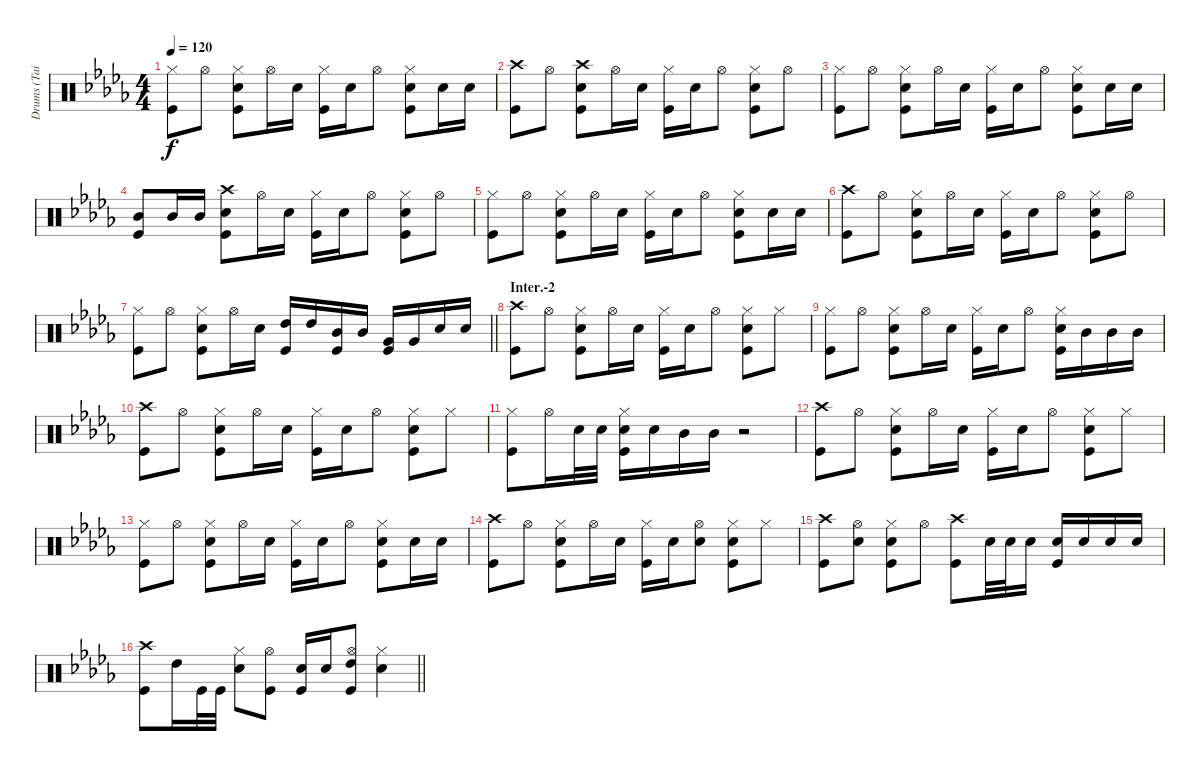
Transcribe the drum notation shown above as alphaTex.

\track ("Drums (Tainaka Ritsu)" "Drums (Tai") {instrument percussion}
\staff {score}
\articulation defaults
\ts (4 4)
\tempo 120
\clef neutral
\ks db
("Hi-Hat (closed)" "Kick (hit)").8{dy f} "Hi-Hat (open)".8 ("Hi-Hat (closed)" "Snare (hit) 2" "Kick (hit)").8 "Hi-Hat (open)".16 "Snare (hit) 2".16 ("Hi-Hat (closed)" "Kick (hit)").16 "Snare (hit) 2".16 "Hi-Hat (open)".8 ("Hi-Hat (closed)" "Snare (hit) 2" "Kick (hit)").8 "Snare (hit) 2".16 "Snare (hit) 2".16 |
("Crash high (hit)" "Kick (hit)").8 "Hi-Hat (open)".8 ("Crash high (hit)" "Snare (hit) 2" "Kick (hit)").8 "Hi-Hat (open)".16 "Snare (hit) 2".16 ("Hi-Hat (closed)" "Kick (hit)").16 "Snare (hit) 2".16 "Hi-Hat (open)".8 ("Hi-Hat (closed)" "Snare (hit) 2" "Kick (hit)").8 "Hi-Hat (open)".8 |
("Hi-Hat (closed)" "Kick (hit)").8 "Hi-Hat (open)".8 ("Hi-Hat (closed)" "Snare (hit) 2" "Kick (hit)").8 "Hi-Hat (open)".16 "Snare (hit) 2".16 ("Hi-Hat (closed)" "Kick (hit)").16 "Snare (hit) 2".16 "Hi-Hat (open)".8 ("Hi-Hat (closed)" "Snare (hit) 2" "Kick (hit)").8 "Snare (hit) 2".16 "Snare (hit) 2".16 |
("Mid Tom (hit)" "Kick (hit)").8 "Mid Tom (hit)".16 "Mid Tom (hit)".16 ("Crash high (hit)" "Snare (hit) 2" "Kick (hit)").8 "Hi-Hat (open)".16 "Snare (hit) 2".16 ("Hi-Hat (closed)" "Kick (hit)").16 "Snare (hit) 2".16 "Hi-Hat (open)".8 ("Hi-Hat (closed)" "Snare (hit) 2" "Kick (hit)").8 "Hi-Hat (open)".8 |
("Hi-Hat (closed)" "Kick (hit)").8 "Hi-Hat (open)".8 ("Hi-Hat (closed)" "Snare (hit) 2" "Kick (hit)").8 "Hi-Hat (open)".16 "Snare (hit) 2".16 ("Hi-Hat (closed)" "Kick (hit)").16 "Snare (hit) 2".16 "Hi-Hat (open)".8 ("Hi-Hat (closed)" "Snare (hit) 2" "Kick (hit)").8 "Snare (hit) 2".16 "Snare (hit) 2".16 |
("Crash high (hit)" "Kick (hit)").8 "Hi-Hat (open)".8 ("Hi-Hat (closed)" "Snare (hit) 2" "Kick (hit)").8 "Hi-Hat (open)".16 "Snare (hit) 2".16 ("Hi-Hat (closed)" "Kick (hit)").16 "Snare (hit) 2".16 "Hi-Hat (open)".8 ("Hi-Hat (closed)" "Snare (hit) 2" "Kick (hit)").8 "Hi-Hat (open)".8 |
\barLineRight lightlight
("Hi-Hat (closed)" "Kick (hit)").8 "Hi-Hat (open)".8 ("Hi-Hat (closed)" "Snare (hit) 2" "Kick (hit)").8 "Hi-Hat (open)".16 "Snare (hit) 2".16 ("High Tom (hit)" "Kick (hit)").16 "High Tom (hit)".16 ("Mid Tom (hit)" "Kick (hit)").16 "Mid Tom (hit)".16 ("Very Low Tom (hit)" "Kick (hit)").16 "Very Low Tom (hit)".16 "Snare (hit) 2".16 "Snare (hit) 2".16 |
\section ("" "Inter.-2")
("Crash high (hit)" "Kick (hit)").8 "Hi-Hat (open)".8 ("Hi-Hat (closed)" "Snare (hit) 2" "Kick (hit)").8 "Hi-Hat (open)".16 "Snare (hit) 2".16 ("Hi-Hat (closed)" "Kick (hit)").16 "Snare (hit) 2".16 "Hi-Hat (open)".8 ("Hi-Hat (closed)" "Snare (hit) 2" "Kick (hit)").8 "Hi-Hat (closed)".8 |
("Hi-Hat (closed)" "Kick (hit)").8 "Hi-Hat (open)".8 ("Hi-Hat (closed)" "Snare (hit) 2" "Kick (hit)").8 "Hi-Hat (open)".16 "Snare (hit) 2".16 ("Hi-Hat (closed)" "Kick (hit)").16 "Snare (hit) 2".16 "Hi-Hat (open)".8 ("Hi-Hat (closed)" "Snare (hit) 2" "Kick (hit)").16 "Mid Tom (hit)".16 "Mid Tom (hit)".16 "Mid Tom (hit)".16 |
("Crash high (hit)" "Kick (hit)").8 "Hi-Hat (open)".8 ("Hi-Hat (closed)" "Snare (hit) 2" "Kick (hit)").8 "Hi-Hat (open)".16 "Snare (hit) 2".16 ("Hi-Hat (closed)" "Kick (hit)").16 "Snare (hit) 2".16 "Hi-Hat (open)".8 ("Hi-Hat (closed)" "Snare (hit) 2" "Kick (hit)").8 "Hi-Hat (closed)".8 |
("Hi-Hat (closed)" "Kick (hit)").8 "Hi-Hat (open)".16 "Snare (hit) 2".32 "Snare (hit) 2".32 ("Hi-Hat (closed)" "Snare (hit) 2" "Kick (hit)").16 "Snare (hit) 2".16 "Mid Tom (hit)".16 "Mid Tom (hit)".16 r.2 |
("Crash high (hit)" "Kick (hit)").8 "Hi-Hat (open)".8 ("Hi-Hat (closed)" "Snare (hit) 2" "Kick (hit)").8 "Hi-Hat (open)".16 "Snare (hit) 2".16 ("Hi-Hat (closed)" "Kick (hit)").16 "Snare (hit) 2".16 "Hi-Hat (open)".8 ("Hi-Hat (closed)" "Snare (hit) 2" "Kick (hit)").8 "Hi-Hat (closed)".8 |
("Hi-Hat (closed)" "Kick (hit)").8 "Hi-Hat (open)".8 ("Hi-Hat (closed)" "Snare (hit) 2" "Kick (hit)").8 "Hi-Hat (open)".16 "Snare (hit) 2".16 ("Hi-Hat (closed)" "Kick (hit)").16 "Snare (hit) 2".16 "Hi-Hat (open)".8 ("Hi-Hat (closed)" "Snare (hit) 2" "Kick (hit)").8 "Snare (hit) 2".16 "Snare (hit) 2".16 |
("Crash high (hit)" "Kick (hit)").8 "Hi-Hat (open)".8 ("Hi-Hat (closed)" "Snare (hit) 2" "Kick (hit)").8 "Hi-Hat (open)".16 "Snare (hit) 2".16 ("Hi-Hat (closed)" "Kick (hit)").16 "Snare (hit) 2".16 ("Hi-Hat (open)" "Snare (hit) 2").8 ("Hi-Hat (closed)" "Snare (hit) 2" "Kick (hit)").8 "Hi-Hat (closed)".8 |
("Crash high (hit)" "Kick (hit)").8 ("Hi-Hat (open)" "Snare (hit) 2").8 ("Hi-Hat (closed)" "Snare (hit) 2" "Kick (hit)").8 "Hi-Hat (open)".8 ("Crash high (hit)" "Kick (hit)").8 "Snare (hit) 2".32 "Snare (hit) 2".32 "Snare (hit) 2".16 ("Snare (hit) 2" "Kick (hit)").16 "Snare (hit) 2".16 "Snare (hit) 2".16 "Snare (hit) 2".16 |
\barLineRight lightlight
("Crash high (hit)" "Kick (hit)").8 "High Tom (hit)".16 "Kick (hit)".32 "Kick (hit)".32 ("Hi-Hat (closed)" "Snare (hit) 2").8 ("Hi-Hat (open)" "Kick (hit)").8 ("Snare (hit) 2" "Kick (hit)").16 "Snare (hit) 2".16 ("Hi-Hat (open)" "High Tom (hit)" "Kick (hit)").8 ("Hi-Hat (closed)" "Snare (hit) 2").4
